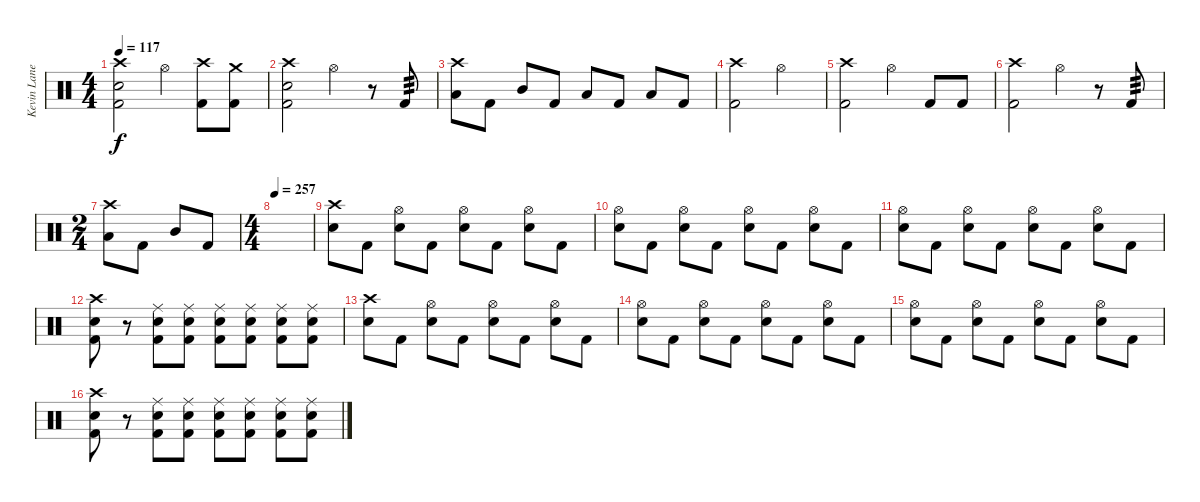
\track ("Kevin Lane" "Kevin Lane") {instrument percussion}
\staff {score}
\articulation defaults
\ts (4 4)
\tempo 117
\clef neutral
\ks c
("Crash high (hit)" "Electric Snare (hit)" "Kick (hit) 2").2{dy f} "Hi-Hat (open)".4 ("Crash high (hit)" "Kick (hit) 2").8 ("Crash medium (hit)" "Kick (hit) 2").8 |
("Crash high (hit)" "Electric Snare (hit)" "Kick (hit) 2").2 "Hi-Hat (open)".4 r.8 "Kick (hit) 2".8{tp 3} |
("Crash high (hit)" "Low Tom (hit)").8 "Kick (hit) 2".8 "Mid Tom (hit)".8 "Kick (hit) 2".8 "Low Tom (hit)".8 "Kick (hit) 2".8 "Low Floor Tom (hit)".8 "Kick (hit) 2".8 |
("Crash high (hit)" "Kick (hit) 2").2 "Hi-Hat (open)".2 |
("Crash high (hit)" "Kick (hit) 2").2 "Hi-Hat (open)".4 "Kick (hit) 2".8 "Kick (hit) 2".8 |
("Crash high (hit)" "Kick (hit) 2").2 "Hi-Hat (open)".4 r.8 "Kick (hit) 2".8{tp 3} |
\ts (2 4)
("Crash high (hit)" "Low Tom (hit)").8 "Kick (hit) 2".8 "Mid Tom (hit)".8 "Kick (hit) 2".8 |
\ts (4 4)
\tempo 257
|
("Crash high (hit)" "Electric Snare (hit)").8 "Kick (hit) 2".8 ("Hi-Hat (open)" "Electric Snare (hit)").8 "Kick (hit) 2".8 ("Hi-Hat (open)" "Electric Snare (hit)").8 "Kick (hit) 2".8 ("Hi-Hat (open)" "Electric Snare (hit)").8 "Kick (hit) 2".8 |
("Hi-Hat (open)" "Electric Snare (hit)").8 "Kick (hit) 2".8 ("Hi-Hat (open)" "Electric Snare (hit)").8 "Kick (hit) 2".8 ("Hi-Hat (open)" "Electric Snare (hit)").8 "Kick (hit) 2".8 ("Hi-Hat (open)" "Electric Snare (hit)").8 "Kick (hit) 2".8 |
("Hi-Hat (open)" "Electric Snare (hit)").8 "Kick (hit) 2".8 ("Hi-Hat (open)" "Electric Snare (hit)").8 "Kick (hit) 2".8 ("Hi-Hat (open)" "Electric Snare (hit)").8 "Kick (hit) 2".8 ("Hi-Hat (open)" "Electric Snare (hit)").8 "Kick (hit) 2".8 |
("Crash high (hit)" "Electric Snare (hit)" "Kick (hit) 2").8 r.8 ("Ride (middle)" "Electric Snare (hit)" "Kick (hit) 2").8 ("Ride (middle)" "Electric Snare (hit)" "Kick (hit) 2").8 ("Ride (middle)" "Electric Snare (hit)" "Kick (hit) 2").8 ("Ride (middle)" "Electric Snare (hit)" "Kick (hit) 2").8 ("Ride (middle)" "Electric Snare (hit)" "Kick (hit) 2").8 ("Ride (middle)" "Electric Snare (hit)" "Kick (hit) 2").8 |
("Crash high (hit)" "Electric Snare (hit)").8 "Kick (hit) 2".8 ("Hi-Hat (open)" "Electric Snare (hit)").8 "Kick (hit) 2".8 ("Hi-Hat (open)" "Electric Snare (hit)").8 "Kick (hit) 2".8 ("Hi-Hat (open)" "Electric Snare (hit)").8 "Kick (hit) 2".8 |
("Hi-Hat (open)" "Electric Snare (hit)").8 "Kick (hit) 2".8 ("Hi-Hat (open)" "Electric Snare (hit)").8 "Kick (hit) 2".8 ("Hi-Hat (open)" "Electric Snare (hit)").8 "Kick (hit) 2".8 ("Hi-Hat (open)" "Electric Snare (hit)").8 "Kick (hit) 2".8 |
("Hi-Hat (open)" "Electric Snare (hit)").8 "Kick (hit) 2".8 ("Hi-Hat (open)" "Electric Snare (hit)").8 "Kick (hit) 2".8 ("Hi-Hat (open)" "Electric Snare (hit)").8 "Kick (hit) 2".8 ("Hi-Hat (open)" "Electric Snare (hit)").8 "Kick (hit) 2".8 |
("Crash high (hit)" "Electric Snare (hit)" "Kick (hit) 2").8 r.8 ("Ride (middle)" "Electric Snare (hit)" "Kick (hit) 2").8 ("Ride (middle)" "Electric Snare (hit)" "Kick (hit) 2").8 ("Ride (middle)" "Electric Snare (hit)" "Kick (hit) 2").8 ("Ride (middle)" "Electric Snare (hit)" "Kick (hit) 2").8 ("Ride (middle)" "Electric Snare (hit)" "Kick (hit) 2").8 ("Ride (middle)" "Electric Snare (hit)" "Kick (hit) 2").8
